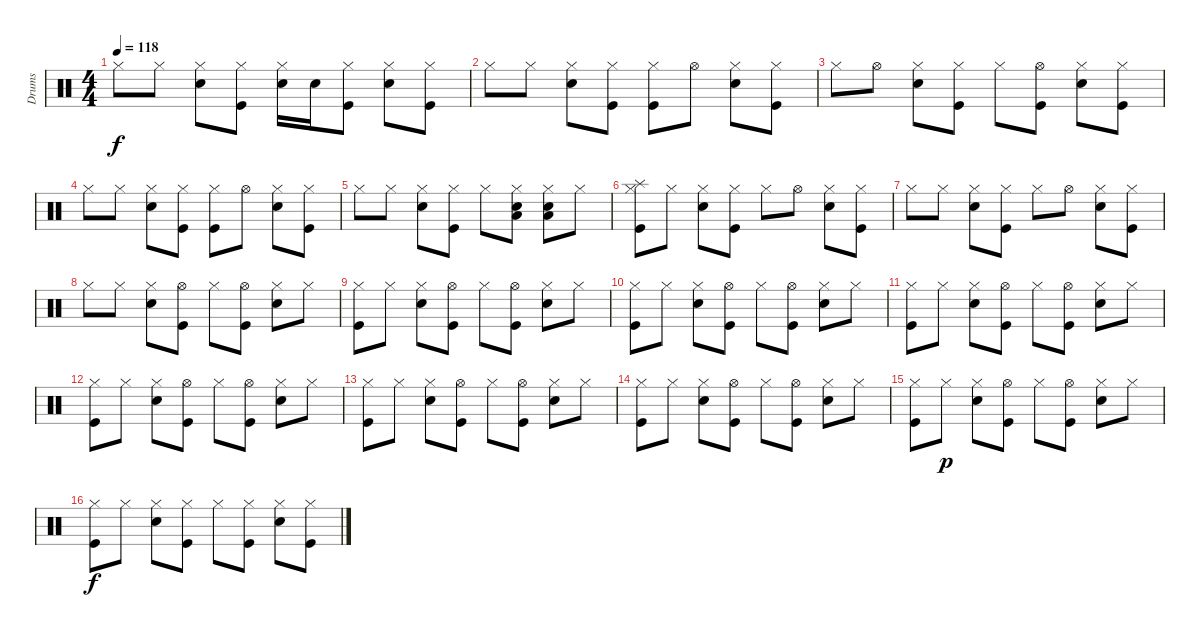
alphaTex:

\track ("Drums" "Drums") {instrument percussion}
\staff {score}
\articulation defaults
\ts (4 4)
\tempo 118
\clef neutral
\ks c "Hi-Hat (closed)".8{dy f} "Hi-Hat (closed)".8
("Hi-Hat (closed)" "Snare (hit) 2").8 ("Hi-Hat (closed)" "Kick (hit)").8 ("Hi-Hat (closed)" "Snare (hit) 2").16 "Snare (hit) 2".16 ("Hi-Hat (closed)" "Kick (hit)").8 ("Hi-Hat (closed)" "Snare (hit) 2").8 ("Hi-Hat (closed)" "Kick (hit)").8 |
"Hi-Hat (closed)".8 "Hi-Hat (closed)".8 ("Hi-Hat (closed)" "Snare (hit) 2").8 ("Hi-Hat (closed)" "Kick (hit)").8 ("Hi-Hat (closed)" "Kick (hit)").8 "Hi-Hat (open)".8 ("Hi-Hat (closed)" "Snare (hit) 2").8 ("Hi-Hat (closed)" "Kick (hit)").8 |
"Hi-Hat (closed)".8 "Hi-Hat (open)".8 ("Hi-Hat (closed)" "Snare (hit) 2").8 ("Hi-Hat (closed)" "Kick (hit)").8 "Hi-Hat (closed)".8 ("Hi-Hat (open)" "Kick (hit)").8 ("Hi-Hat (closed)" "Snare (hit) 2").8 ("Hi-Hat (closed)" "Kick (hit)").8 |
"Hi-Hat (closed)".8 "Hi-Hat (closed)".8 ("Hi-Hat (closed)" "Snare (hit) 2").8 ("Hi-Hat (closed)" "Kick (hit)").8 ("Hi-Hat (closed)" "Kick (hit)").8 "Hi-Hat (open)".8 ("Hi-Hat (closed)" "Snare (hit) 2").8 ("Hi-Hat (closed)" "Kick (hit)").8 |
"Hi-Hat (closed)".8 "Hi-Hat (closed)".8 ("Hi-Hat (closed)" "Snare (hit) 2").8 ("Hi-Hat (closed)" "Kick (hit)").8 "Hi-Hat (closed)".8 ("Hi-Hat (closed)" "Snare (hit) 2" "Low Floor Tom (hit)").8 ("Hi-Hat (closed)" "Snare (hit) 2" "Low Floor Tom (hit)").8 "Hi-Hat (closed)".8 |
("Hi-Hat (closed)" "Splash (hit)" "Kick (hit)").8 "Hi-Hat (closed)".8 ("Hi-Hat (closed)" "Snare (hit) 2").8 ("Hi-Hat (closed)" "Kick (hit)").8 "Hi-Hat (closed)".8 "Hi-Hat (open)".8 ("Hi-Hat (closed)" "Snare (hit) 2").8 ("Hi-Hat (closed)" "Kick (hit)").8 |
"Hi-Hat (closed)".8 "Hi-Hat (closed)".8 ("Hi-Hat (closed)" "Snare (hit) 2").8 ("Hi-Hat (closed)" "Kick (hit)").8 "Hi-Hat (closed)".8 "Hi-Hat (open)".8 ("Hi-Hat (closed)" "Snare (hit) 2").8 ("Hi-Hat (closed)" "Kick (hit)").8 |
"Hi-Hat (closed)".8 "Hi-Hat (closed)".8 ("Hi-Hat (closed)" "Snare (hit) 2").8 ("Hi-Hat (open)" "Kick (hit)").8 "Hi-Hat (closed)".8 ("Hi-Hat (open)" "Kick (hit)").8 ("Hi-Hat (closed)" "Snare (hit) 2").8 "Hi-Hat (closed)".8 |
("Hi-Hat (closed)" "Kick (hit)").8 "Hi-Hat (closed)".8 ("Hi-Hat (closed)" "Snare (hit) 2").8 ("Hi-Hat (open)" "Kick (hit)").8 "Hi-Hat (closed)".8 ("Hi-Hat (open)" "Kick (hit)").8 ("Hi-Hat (closed)" "Snare (hit) 2").8 "Hi-Hat (closed)".8 |
("Hi-Hat (closed)" "Kick (hit)").8 "Hi-Hat (closed)".8 ("Hi-Hat (closed)" "Snare (hit) 2").8 ("Hi-Hat (open)" "Kick (hit)").8 "Hi-Hat (closed)".8 ("Hi-Hat (open)" "Kick (hit)").8 ("Hi-Hat (closed)" "Snare (hit) 2").8 "Hi-Hat (closed)".8 |
("Hi-Hat (closed)" "Kick (hit)").8 "Hi-Hat (closed)".8 ("Hi-Hat (closed)" "Snare (hit) 2").8 ("Hi-Hat (open)" "Kick (hit)").8 "Hi-Hat (closed)".8 ("Hi-Hat (open)" "Kick (hit)").8 ("Hi-Hat (closed)" "Snare (hit) 2").8 "Hi-Hat (closed)".8 |
("Hi-Hat (closed)" "Kick (hit)").8 "Hi-Hat (closed)".8 ("Hi-Hat (closed)" "Snare (hit) 2").8 ("Hi-Hat (open)" "Kick (hit)").8 "Hi-Hat (closed)".8 ("Hi-Hat (open)" "Kick (hit)").8 ("Hi-Hat (closed)" "Snare (hit) 2").8 "Hi-Hat (closed)".8 |
("Hi-Hat (closed)" "Kick (hit)").8 "Hi-Hat (closed)".8 ("Hi-Hat (closed)" "Snare (hit) 2").8 ("Hi-Hat (open)" "Kick (hit)").8 "Hi-Hat (closed)".8 ("Hi-Hat (open)" "Kick (hit)").8 ("Hi-Hat (closed)" "Snare (hit) 2").8 "Hi-Hat (closed)".8 |
("Hi-Hat (closed)" "Kick (hit)").8 "Hi-Hat (closed)".8 ("Hi-Hat (closed)" "Snare (hit) 2").8 ("Hi-Hat (open)" "Kick (hit)").8 "Hi-Hat (closed)".8 ("Hi-Hat (open)" "Kick (hit)").8 ("Hi-Hat (closed)" "Snare (hit) 2").8 "Hi-Hat (closed)".8 |
("Hi-Hat (closed)" "Kick (hit)").8 "Hi-Hat (closed)".8{dy p} ("Hi-Hat (closed)" "Snare (hit) 2").8 ("Hi-Hat (open)" "Kick (hit)").8 "Hi-Hat (closed)".8 ("Hi-Hat (open)" "Kick (hit)").8 ("Hi-Hat (closed)" "Snare (hit) 2").8 "Hi-Hat (closed)".8 |
("Hi-Hat (closed)" "Kick (hit)").8{dy f} "Hi-Hat (closed)".8 ("Hi-Hat (closed)" "Snare (hit) 2").8 ("Hi-Hat (closed)" "Kick (hit)").8 "Hi-Hat (closed)".8 ("Hi-Hat (closed)" "Kick (hit)").8 ("Hi-Hat (closed)" "Snare (hit) 2").8 ("Hi-Hat (closed)" "Kick (hit)").8
